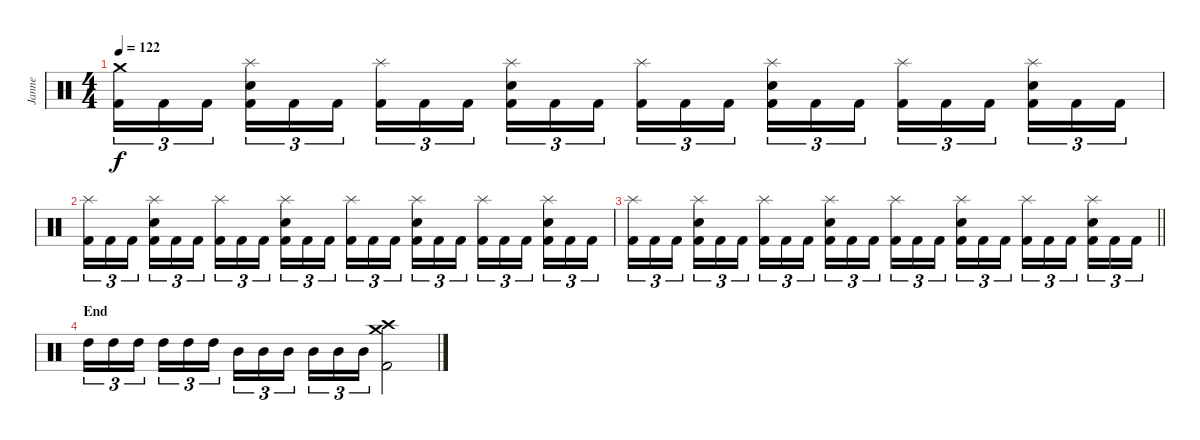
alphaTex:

\track ("Janne" "Janne") {instrument percussion}
\staff {score}
\articulation defaults
\ts (4 4)
\tempo 122
\clef neutral
\ks c
("Kick (hit) 2" "Crash medium (hit)").16{tu (3 2) dy f} "Kick (hit) 2".16{tu (3 2)} "Kick (hit) 2".16{tu (3 2) beam splitsecondary} ("Kick (hit) 2" "Snare (hit) 2" "Splash (hit)").16{tu (3 2)} "Kick (hit) 2".16{tu (3 2)} "Kick (hit) 2".16{tu (3 2)} ("Kick (hit) 2" "Splash (hit)").16{tu (3 2)} "Kick (hit) 2".16{tu (3 2)} "Kick (hit) 2".16{tu (3 2) beam splitsecondary} ("Kick (hit) 2" "Snare (hit) 2" "Splash (hit)").16{tu (3 2)} "Kick (hit) 2".16{tu (3 2)} "Kick (hit) 2".16{tu (3 2)} ("Kick (hit) 2" "Splash (hit)").16{tu (3 2)} "Kick (hit) 2".16{tu (3 2)} "Kick (hit) 2".16{tu (3 2) beam splitsecondary} ("Kick (hit) 2" "Snare (hit) 2" "Splash (hit)").16{tu (3 2)} "Kick (hit) 2".16{tu (3 2)} "Kick (hit) 2".16{tu (3 2)} ("Kick (hit) 2" "Splash (hit)").16{tu (3 2)} "Kick (hit) 2".16{tu (3 2)} "Kick (hit) 2".16{tu (3 2) beam splitsecondary} ("Kick (hit) 2" "Snare (hit) 2" "Splash (hit)").16{tu (3 2)} "Kick (hit) 2".16{tu (3 2)} "Kick (hit) 2".16{tu (3 2)} |
("Kick (hit) 2" "Splash (hit)").16{tu (3 2)} "Kick (hit) 2".16{tu (3 2)} "Kick (hit) 2".16{tu (3 2) beam splitsecondary} ("Kick (hit) 2" "Snare (hit) 2" "Splash (hit)").16{tu (3 2)} "Kick (hit) 2".16{tu (3 2)} "Kick (hit) 2".16{tu (3 2)} ("Kick (hit) 2" "Splash (hit)").16{tu (3 2)} "Kick (hit) 2".16{tu (3 2)} "Kick (hit) 2".16{tu (3 2) beam splitsecondary} ("Kick (hit) 2" "Snare (hit) 2" "Splash (hit)").16{tu (3 2)} "Kick (hit) 2".16{tu (3 2)} "Kick (hit) 2".16{tu (3 2)} ("Kick (hit) 2" "Splash (hit)").16{tu (3 2)} "Kick (hit) 2".16{tu (3 2)} "Kick (hit) 2".16{tu (3 2) beam splitsecondary} ("Kick (hit) 2" "Snare (hit) 2" "Splash (hit)").16{tu (3 2)} "Kick (hit) 2".16{tu (3 2)} "Kick (hit) 2".16{tu (3 2)} ("Kick (hit) 2" "Splash (hit)").16{tu (3 2)} "Kick (hit) 2".16{tu (3 2)} "Kick (hit) 2".16{tu (3 2) beam splitsecondary} ("Kick (hit) 2" "Snare (hit) 2" "Splash (hit)").16{tu (3 2)} "Kick (hit) 2".16{tu (3 2)} "Kick (hit) 2".16{tu (3 2)} |
\barLineRight lightlight
("Kick (hit) 2" "Splash (hit)").16{tu (3 2)} "Kick (hit) 2".16{tu (3 2)} "Kick (hit) 2".16{tu (3 2) beam splitsecondary} ("Kick (hit) 2" "Snare (hit) 2" "Splash (hit)").16{tu (3 2)} "Kick (hit) 2".16{tu (3 2)} "Kick (hit) 2".16{tu (3 2)} ("Kick (hit) 2" "Splash (hit)").16{tu (3 2)} "Kick (hit) 2".16{tu (3 2)} "Kick (hit) 2".16{tu (3 2) beam splitsecondary} ("Kick (hit) 2" "Snare (hit) 2" "Splash (hit)").16{tu (3 2)} "Kick (hit) 2".16{tu (3 2)} "Kick (hit) 2".16{tu (3 2)} ("Kick (hit) 2" "Splash (hit)").16{tu (3 2)} "Kick (hit) 2".16{tu (3 2)} "Kick (hit) 2".16{tu (3 2) beam splitsecondary} ("Kick (hit) 2" "Snare (hit) 2" "Splash (hit)").16{tu (3 2)} "Kick (hit) 2".16{tu (3 2)} "Kick (hit) 2".16{tu (3 2)} ("Kick (hit) 2" "Splash (hit)").16{tu (3 2)} "Kick (hit) 2".16{tu (3 2)} "Kick (hit) 2".16{tu (3 2) beam splitsecondary} ("Kick (hit) 2" "Snare (hit) 2" "Splash (hit)").16{tu (3 2)} "Kick (hit) 2".16{tu (3 2)} "Kick (hit) 2".16{tu (3 2)} |
\section ("" "End")
"High Tom (hit)".16{tu (3 2)} "High Tom (hit)".16{tu (3 2)} "High Tom (hit)".16{tu (3 2) beam splitsecondary} "High Tom (hit)".16{tu (3 2)} "High Tom (hit)".16{tu (3 2)} "High Tom (hit)".16{tu (3 2)} "Mid Tom (hit)".16{tu (3 2)} "Mid Tom (hit)".16{tu (3 2)} "Mid Tom (hit)".16{tu (3 2) beam splitsecondary} "Mid Tom (hit)".16{tu (3 2)} "Mid Tom (hit)".16{tu (3 2)} "Mid Tom (hit)".16{tu (3 2)} ("Kick (hit) 2" "Crash medium (hit)" "Crash high (hit)").2
